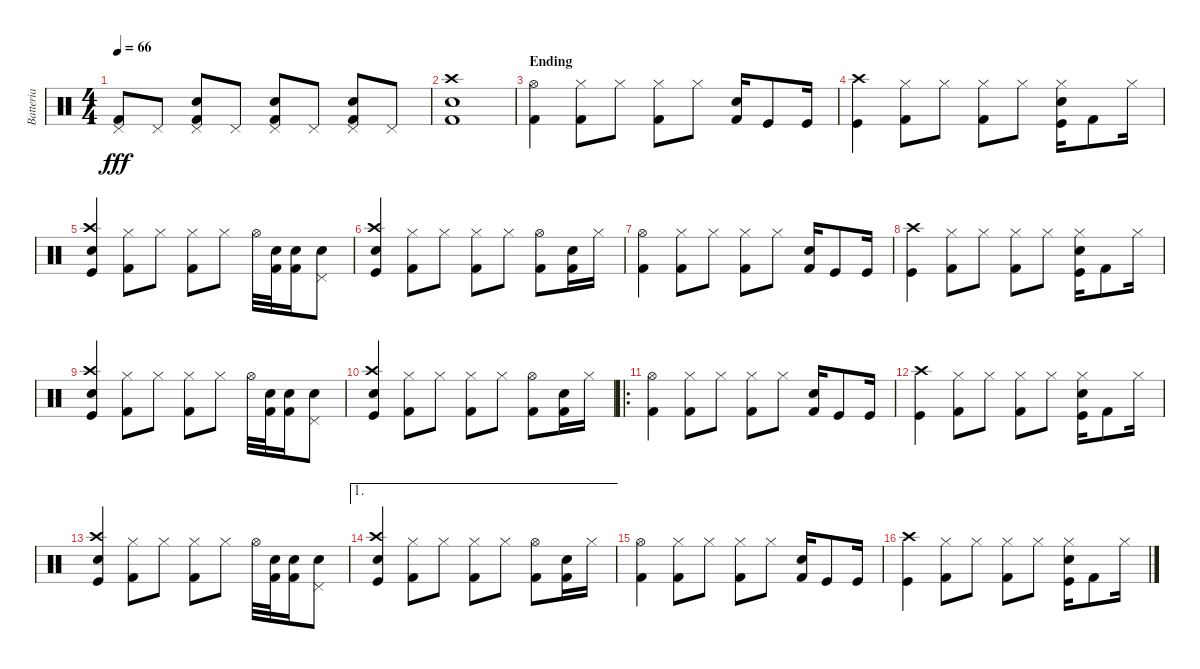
\track ("Batteria" "Batteria") {instrument percussion}
\staff {score}
\articulation defaults
\ts (4 4)
\tempo 66
\clef neutral
\ks c
("Pedal Hi-Hat (hit)" "Kick (hit) 2").8{dy fff} "Pedal Hi-Hat (hit)".8 ("Pedal Hi-Hat (hit)" "Snare (hit) 2" "Kick (hit) 2").8 "Pedal Hi-Hat (hit)".8 ("Pedal Hi-Hat (hit)" "Snare (hit) 2" "Kick (hit) 2").8 "Pedal Hi-Hat (hit)".8 ("Pedal Hi-Hat (hit)" "Snare (hit) 2" "Kick (hit) 2").8 "Pedal Hi-Hat (hit)".8 |
("Crash high (hit)" "Snare (hit) 2" "Kick (hit) 2").1 |
\section ("" "Ending")
("Hi-Hat (open)" "Kick (hit) 2").4 ("Hi-Hat (closed)" "Kick (hit) 2").8 "Hi-Hat (closed)".8 ("Hi-Hat (closed)" "Kick (hit) 2").8 "Hi-Hat (closed)".8 ("Snare (hit) 2" "Kick (hit) 2").16 "Kick (hit)".8 "Kick (hit)".16 |
("Crash high (hit)" "Kick (hit)").4 ("Hi-Hat (closed)" "Kick (hit) 2").8 "Hi-Hat (closed)".8 ("Hi-Hat (closed)" "Kick (hit) 2").8 "Hi-Hat (closed)".8 ("Hi-Hat (closed)" "Snare (hit) 2" "Kick (hit)").16 "Kick (hit) 2".8 "Hi-Hat (closed)".16 |
("Crash high (hit)" "Snare (hit) 2" "Kick (hit)").4 ("Hi-Hat (closed)" "Kick (hit) 2").8 "Hi-Hat (closed)".8 ("Hi-Hat (closed)" "Kick (hit) 2").8 "Hi-Hat (closed)".8 "Hi-Hat (open)".32 ("Snare (hit) 2" "Kick (hit) 2").32 ("Snare (hit) 2" "Kick (hit) 2").16 ("Pedal Hi-Hat (hit)" "Snare (hit) 2").8 |
("Crash high (hit)" "Snare (hit) 2" "Kick (hit)").4 ("Hi-Hat (closed)" "Kick (hit) 2").8 "Hi-Hat (closed)".8 ("Hi-Hat (closed)" "Kick (hit) 2").8 "Hi-Hat (closed)".8 ("Hi-Hat (open)" "Kick (hit) 2").8 ("Snare (hit) 2" "Kick (hit) 2").16 "Hi-Hat (closed)".16 |
("Hi-Hat (open)" "Kick (hit) 2").4 ("Hi-Hat (closed)" "Kick (hit) 2").8 "Hi-Hat (closed)".8 ("Hi-Hat (closed)" "Kick (hit) 2").8 "Hi-Hat (closed)".8 ("Snare (hit) 2" "Kick (hit) 2").16 "Kick (hit)".8 "Kick (hit)".16 |
("Crash high (hit)" "Kick (hit)").4 ("Hi-Hat (closed)" "Kick (hit) 2").8 "Hi-Hat (closed)".8 ("Hi-Hat (closed)" "Kick (hit) 2").8 "Hi-Hat (closed)".8 ("Hi-Hat (closed)" "Snare (hit) 2" "Kick (hit)").16 "Kick (hit) 2".8 "Hi-Hat (closed)".16 |
("Crash high (hit)" "Snare (hit) 2" "Kick (hit)").4 ("Hi-Hat (closed)" "Kick (hit) 2").8 "Hi-Hat (closed)".8 ("Hi-Hat (closed)" "Kick (hit) 2").8 "Hi-Hat (closed)".8 "Hi-Hat (open)".32 ("Snare (hit) 2" "Kick (hit) 2").32 ("Snare (hit) 2" "Kick (hit) 2").16 ("Pedal Hi-Hat (hit)" "Snare (hit) 2").8 |
("Crash high (hit)" "Snare (hit) 2" "Kick (hit)").4 ("Hi-Hat (closed)" "Kick (hit) 2").8 "Hi-Hat (closed)".8 ("Hi-Hat (closed)" "Kick (hit) 2").8 "Hi-Hat (closed)".8 ("Hi-Hat (open)" "Kick (hit) 2").8 ("Snare (hit) 2" "Kick (hit) 2").16 "Hi-Hat (closed)".16 |
\ro
("Hi-Hat (open)" "Kick (hit) 2").4 ("Hi-Hat (closed)" "Kick (hit) 2").8 "Hi-Hat (closed)".8 ("Hi-Hat (closed)" "Kick (hit) 2").8 "Hi-Hat (closed)".8 ("Snare (hit) 2" "Kick (hit) 2").16 "Kick (hit)".8 "Kick (hit)".16 |
("Crash high (hit)" "Kick (hit)").4 ("Hi-Hat (closed)" "Kick (hit) 2").8 "Hi-Hat (closed)".8 ("Hi-Hat (closed)" "Kick (hit) 2").8 "Hi-Hat (closed)".8 ("Hi-Hat (closed)" "Snare (hit) 2" "Kick (hit)").16 "Kick (hit) 2".8 "Hi-Hat (closed)".16 |
("Crash high (hit)" "Snare (hit) 2" "Kick (hit)").4 ("Hi-Hat (closed)" "Kick (hit) 2").8 "Hi-Hat (closed)".8 ("Hi-Hat (closed)" "Kick (hit) 2").8 "Hi-Hat (closed)".8 "Hi-Hat (open)".32 ("Snare (hit) 2" "Kick (hit) 2").32 ("Snare (hit) 2" "Kick (hit) 2").16 ("Pedal Hi-Hat (hit)" "Snare (hit) 2").8 |
\ae 1
("Crash high (hit)" "Snare (hit) 2" "Kick (hit)").4 ("Hi-Hat (closed)" "Kick (hit) 2").8 "Hi-Hat (closed)".8 ("Hi-Hat (closed)" "Kick (hit) 2").8 "Hi-Hat (closed)".8 ("Hi-Hat (open)" "Kick (hit) 2").8 ("Snare (hit) 2" "Kick (hit) 2").16 "Hi-Hat (closed)".16 |
("Hi-Hat (open)" "Kick (hit) 2").4 ("Hi-Hat (closed)" "Kick (hit) 2").8 "Hi-Hat (closed)".8 ("Hi-Hat (closed)" "Kick (hit) 2").8 "Hi-Hat (closed)".8 ("Snare (hit) 2" "Kick (hit) 2").16 "Kick (hit)".8 "Kick (hit)".16 |
("Crash high (hit)" "Kick (hit)").4 ("Hi-Hat (closed)" "Kick (hit) 2").8 "Hi-Hat (closed)".8 ("Hi-Hat (closed)" "Kick (hit) 2").8 "Hi-Hat (closed)".8 ("Hi-Hat (closed)" "Snare (hit) 2" "Kick (hit)").16 "Kick (hit) 2".8 "Hi-Hat (closed)".16
